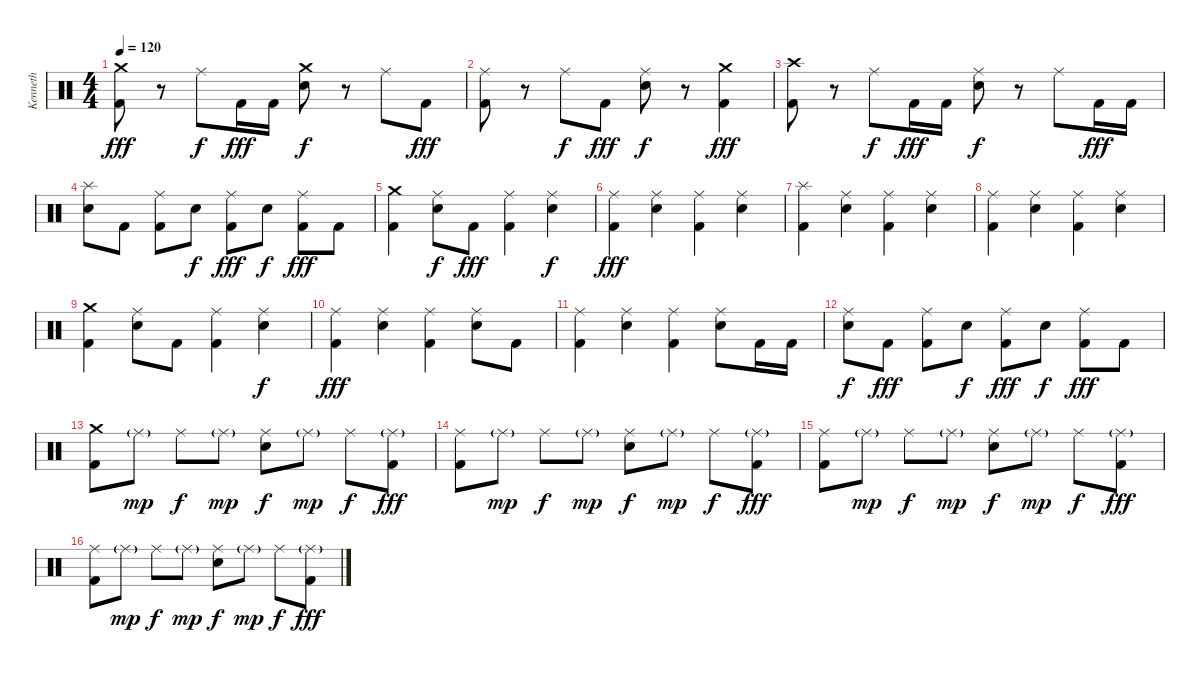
\track ("Kenneth" "Kenneth") {instrument percussion}
\staff {score}
\articulation defaults
\ts (4 4)
\tempo 120
\clef neutral
\ks c
("Crash medium (hit)" "Kick (hit) 2").8{dy fff} r.8 "Ride (middle)".8{dy f} "Kick (hit) 2".16{dy fff} "Kick (hit) 2".16 ("Crash medium (hit)" "Electric Snare (hit)").8{dy f} r.8 "Ride (middle)".8 "Kick (hit) 2".8{dy fff} |
("Ride (middle)" "Kick (hit) 2").8 r.8 "Ride (middle)".8{dy f} "Kick (hit) 2".8{dy fff} ("Ride (middle)" "Electric Snare (hit)").8{dy f} r.8 ("Crash medium (hit)" "Kick (hit) 2").4{dy fff} |
("Crash high (hit)" "Kick (hit) 2").8 r.8 "Ride (middle)".8{dy f} "Kick (hit) 2".16{dy fff} "Kick (hit) 2".16 ("Ride (middle)" "Electric Snare (hit)").8{dy f} r.8 "Ride (middle)".8 "Kick (hit) 2".16{dy fff} "Kick (hit) 2".16 |
("Splash (hit)" "Electric Snare (hit)").8 "Kick (hit) 2".8 ("Ride (middle)" "Kick (hit) 2").8 "Electric Snare (hit)".8{dy f} ("Ride (middle)" "Kick (hit) 2").8{dy fff} "Electric Snare (hit)".8{dy f} ("Ride (middle)" "Kick (hit) 2").8{dy fff} "Kick (hit) 2".8 |
("Crash medium (hit)" "Kick (hit) 2").4 ("Ride (middle)" "Electric Snare (hit)").8{dy f} "Kick (hit) 2".8{dy fff} ("Ride (middle)" "Kick (hit) 2").4 ("Ride (middle)" "Electric Snare (hit)").4{dy f} |
("Ride (middle)" "Kick (hit) 2").4{dy fff} ("Ride (middle)" "Electric Snare (hit)").4 ("Ride (middle)" "Kick (hit) 2").4 ("Ride (middle)" "Electric Snare (hit)").4 |
("Splash (hit)" "Kick (hit) 2").4 ("Ride (middle)" "Electric Snare (hit)").4 ("Ride (middle)" "Kick (hit) 2").4 ("Ride (middle)" "Electric Snare (hit)").4 |
("Ride (middle)" "Kick (hit) 2").4 ("Ride (middle)" "Electric Snare (hit)").4 ("Ride (middle)" "Kick (hit) 2").4 ("Ride (middle)" "Electric Snare (hit)").4 |
("Crash medium (hit)" "Kick (hit) 2").4 ("Ride (middle)" "Electric Snare (hit)").8 "Kick (hit) 2".8 ("Ride (middle)" "Kick (hit) 2").4 ("Ride (middle)" "Electric Snare (hit)").4{dy f} |
("Ride (middle)" "Kick (hit) 2").4{dy fff} ("Ride (middle)" "Electric Snare (hit)").4 ("Ride (middle)" "Kick (hit) 2").4 ("Ride (middle)" "Electric Snare (hit)").8 "Kick (hit) 2".8 |
("Ride (middle)" "Kick (hit) 2").4 ("Ride (middle)" "Electric Snare (hit)").4 ("Ride (middle)" "Kick (hit) 2").4 ("Ride (middle)" "Electric Snare (hit)").8 "Kick (hit) 2".16 "Kick (hit) 2".16 |
("Ride (middle)" "Electric Snare (hit)").8{dy f} "Kick (hit) 2".8{dy fff} ("Ride (middle)" "Kick (hit) 2").8 "Electric Snare (hit)".8{dy f} ("Ride (middle)" "Kick (hit) 2").8{dy fff} "Electric Snare (hit)".8{dy f} ("Ride (middle)" "Kick (hit) 2").8{dy fff} "Kick (hit) 2".8 |
("Crash medium (hit)" "Kick (hit) 2").8 "Ride (middle)"{g}.8{dy mp} "Ride (middle)".8{dy f} "Ride (middle)"{g}.8{dy mp} ("Ride (middle)" "Electric Snare (hit)").8{dy f} "Ride (middle)"{g}.8{dy mp} "Ride (middle)".8{dy f} ("Ride (middle)"{g} "Kick (hit) 2").8{dy fff} |
("Ride (middle)" "Kick (hit) 2").8 "Ride (middle)"{g}.8{dy mp} "Ride (middle)".8{dy f} "Ride (middle)"{g}.8{dy mp} ("Ride (middle)" "Electric Snare (hit)").8{dy f} "Ride (middle)"{g}.8{dy mp} "Ride (middle)".8{dy f} ("Ride (middle)"{g} "Kick (hit) 2").8{dy fff} |
("Ride (middle)" "Kick (hit) 2").8 "Ride (middle)"{g}.8{dy mp} "Ride (middle)".8{dy f} "Ride (middle)"{g}.8{dy mp} ("Ride (middle)" "Electric Snare (hit)").8{dy f} "Ride (middle)"{g}.8{dy mp} "Ride (middle)".8{dy f} ("Ride (middle)"{g} "Kick (hit) 2").8{dy fff} |
("Ride (middle)" "Kick (hit) 2").8 "Ride (middle)"{g}.8{dy mp} "Ride (middle)".8{dy f} "Ride (middle)"{g}.8{dy mp} ("Ride (middle)" "Electric Snare (hit)").8{dy f} "Ride (middle)"{g}.8{dy mp} "Ride (middle)".8{dy f} ("Ride (middle)"{g} "Kick (hit) 2").8{dy fff}
